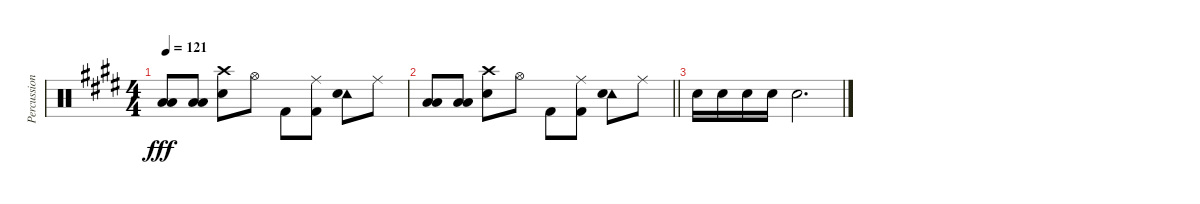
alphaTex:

\track ("Percussion" "Percussion") {instrument percussion}
\staff {score}
\articulation defaults
\ts (4 4)
\tempo 121
\clef neutral
\ks e
("Low Tom (hit)" "Low Floor Tom (hit)").8{dy fff} ("Low Tom (hit)" "Low Floor Tom (hit)").8 ("Crash high (hit)" "Snare (hit) 2").8 "Hi-Hat (open)".8 "Kick (hit) 2".8 ("Ride (middle)" "Kick (hit) 2").8 ("Tambourine (hit)" "Snare (hit) 2").8 "Ride (middle)".8 |
\barLineRight lightlight
("Low Tom (hit)" "Low Floor Tom (hit)").8 ("Low Tom (hit)" "Low Floor Tom (hit)").8 ("Crash high (hit)" "Snare (hit) 2").8 "Hi-Hat (open)".8 "Kick (hit) 2".8 ("Ride (middle)" "Kick (hit) 2").8 ("Tambourine (hit)" "Snare (hit) 2").8 "Ride (middle)".8 |
"Snare (hit) 2".16 "Snare (hit) 2".16 "Snare (hit) 2".16 "Snare (hit) 2".16 "Snare (hit) 2".2{d}
